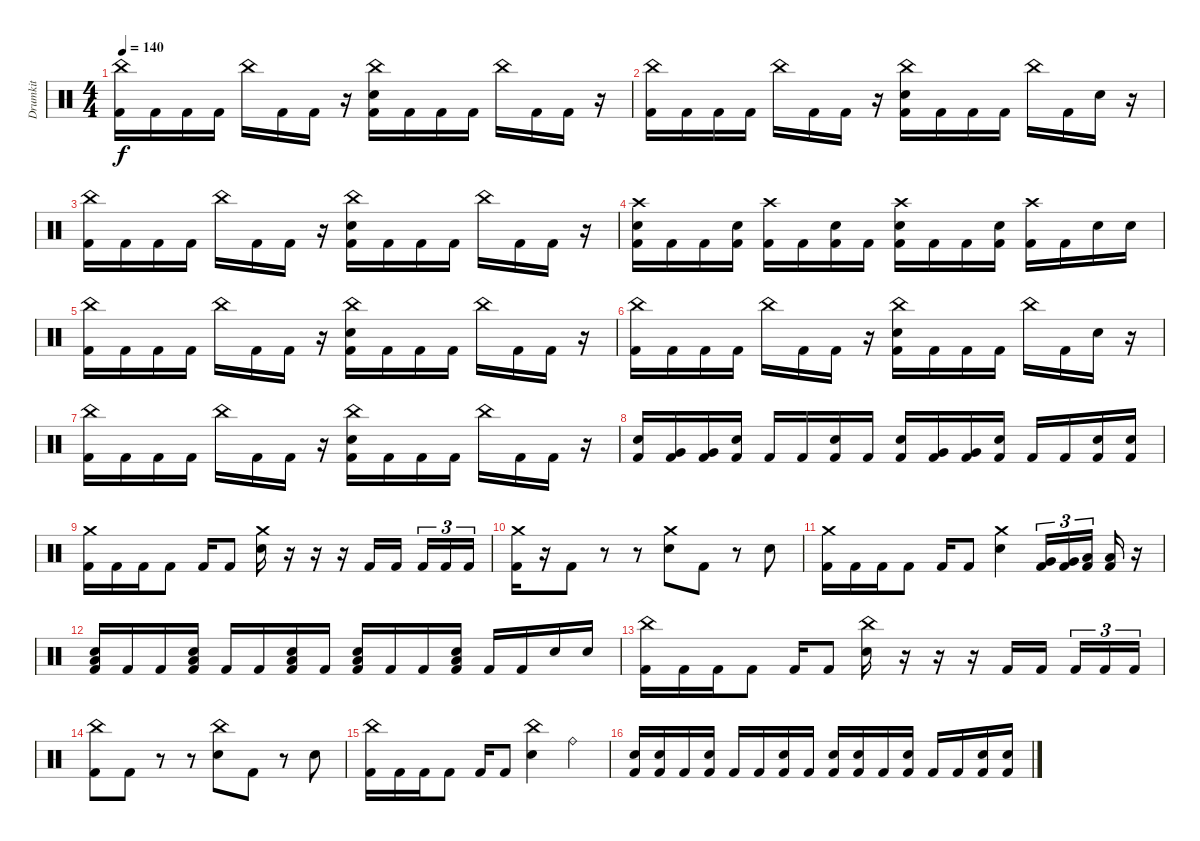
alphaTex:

\track ("Drumkit" "Drumkit") {instrument percussion}
\staff {score}
\articulation defaults
\ts (4 4)
\tempo 140
\clef neutral
\ks c
("China (hit)" "Kick (hit) 2").16{dy f} "Kick (hit) 2".16 "Kick (hit) 2".16 "Kick (hit) 2".16 "China (hit)".16 "Kick (hit) 2".16 "Kick (hit) 2".16 r.16 ("China (hit)" "Electric Snare (hit)" "Kick (hit) 2").16 "Kick (hit) 2".16 "Kick (hit) 2".16 "Kick (hit) 2".16 "China (hit)".16 "Kick (hit) 2".16 "Kick (hit) 2".16 r.16 |
("China (hit)" "Kick (hit) 2").16 "Kick (hit) 2".16 "Kick (hit) 2".16 "Kick (hit) 2".16 "China (hit)".16 "Kick (hit) 2".16 "Kick (hit) 2".16 r.16 ("China (hit)" "Electric Snare (hit)" "Kick (hit) 2").16 "Kick (hit) 2".16 "Kick (hit) 2".16 "Kick (hit) 2".16 "China (hit)".16 "Kick (hit) 2".16 "Electric Snare (hit)".16 r.16 |
("China (hit)" "Kick (hit) 2").16 "Kick (hit) 2".16 "Kick (hit) 2".16 "Kick (hit) 2".16 "China (hit)".16 "Kick (hit) 2".16 "Kick (hit) 2".16 r.16 ("China (hit)" "Electric Snare (hit)" "Kick (hit) 2").16 "Kick (hit) 2".16 "Kick (hit) 2".16 "Kick (hit) 2".16 "China (hit)".16 "Kick (hit) 2".16 "Kick (hit) 2".16 r.16 |
("Crash high (hit)" "Electric Snare (hit)" "Kick (hit) 2").16 "Kick (hit) 2".16 "Kick (hit) 2".16 ("Electric Snare (hit)" "Kick (hit) 2").16 ("Crash high (hit)" "Kick (hit) 2").16 "Kick (hit) 2".16 ("Electric Snare (hit)" "Kick (hit) 2").16 "Kick (hit) 2".16 ("Crash high (hit)" "Electric Snare (hit)" "Kick (hit) 2").16 "Kick (hit) 2".16 "Kick (hit) 2".16 ("Electric Snare (hit)" "Kick (hit) 2").16 ("Crash high (hit)" "Kick (hit) 2").16 "Kick (hit) 2".16 "Electric Snare (hit)".16 "Electric Snare (hit)".16 |
("China (hit)" "Kick (hit) 2").16 "Kick (hit) 2".16 "Kick (hit) 2".16 "Kick (hit) 2".16 "China (hit)".16 "Kick (hit) 2".16 "Kick (hit) 2".16 r.16 ("China (hit)" "Electric Snare (hit)" "Kick (hit) 2").16 "Kick (hit) 2".16 "Kick (hit) 2".16 "Kick (hit) 2".16 "China (hit)".16 "Kick (hit) 2".16 "Kick (hit) 2".16 r.16 |
("China (hit)" "Kick (hit) 2").16 "Kick (hit) 2".16 "Kick (hit) 2".16 "Kick (hit) 2".16 "China (hit)".16 "Kick (hit) 2".16 "Kick (hit) 2".16 r.16 ("China (hit)" "Electric Snare (hit)" "Kick (hit) 2").16 "Kick (hit) 2".16 "Kick (hit) 2".16 "Kick (hit) 2".16 "China (hit)".16 "Kick (hit) 2".16 "Electric Snare (hit)".16 r.16 |
("China (hit)" "Kick (hit) 2").16 "Kick (hit) 2".16 "Kick (hit) 2".16 "Kick (hit) 2".16 "China (hit)".16 "Kick (hit) 2".16 "Kick (hit) 2".16 r.16 ("China (hit)" "Electric Snare (hit)" "Kick (hit) 2").16 "Kick (hit) 2".16 "Kick (hit) 2".16 "Kick (hit) 2".16 "China (hit)".16 "Kick (hit) 2".16 "Kick (hit) 2".16 r.16 |
("Electric Snare (hit)" "Kick (hit) 2").16 ("Very Low Tom (hit)" "Kick (hit) 2").16 ("Very Low Tom (hit)" "Kick (hit) 2").16 ("Electric Snare (hit)" "Kick (hit) 2").16 "Kick (hit) 2".16 "Kick (hit) 2".16 ("Electric Snare (hit)" "Kick (hit) 2").16 "Kick (hit) 2".16 ("Electric Snare (hit)" "Kick (hit) 2").16 ("Very Low Tom (hit)" "Kick (hit) 2").16 ("Very Low Tom (hit)" "Kick (hit) 2").16 ("Electric Snare (hit)" "Kick (hit) 2").16 "Kick (hit) 2".16 "Kick (hit) 2".16 ("Electric Snare (hit)" "Kick (hit) 2").16 ("Electric Snare (hit)" "Kick (hit) 2").16 |
("Crash medium (hit)" "Kick (hit) 2").16 "Kick (hit) 2".16 "Kick (hit) 2".16 "Kick (hit) 2".8 "Kick (hit) 2".16 "Kick (hit) 2".8 ("Crash medium (hit)" "Electric Snare (hit)").16 r.16 r.16 r.16 "Kick (hit) 2".16 "Kick (hit) 2".16{beam splitsecondary} "Kick (hit) 2".16{tu (3 2)} "Kick (hit) 2".16{tu (3 2)} "Kick (hit) 2".16{tu (3 2)} |
("Crash medium (hit)" "Kick (hit) 2").16 r.16 "Kick (hit) 2".8 r.8 r.8 ("Crash medium (hit)" "Electric Snare (hit)").8 "Kick (hit) 2".8 r.8 "Electric Snare (hit)".8 |
("Crash medium (hit)" "Kick (hit) 2").16 "Kick (hit) 2".16 "Kick (hit) 2".16 "Kick (hit) 2".8 "Kick (hit) 2".16 "Kick (hit) 2".8 ("Crash medium (hit)" "Electric Snare (hit)").4 ("Very Low Tom (hit)" "Kick (hit) 2").16{tu (3 2)} ("Very Low Tom (hit)" "Kick (hit) 2").16{tu (3 2)} ("Low Floor Tom (hit)" "Kick (hit) 2").16{tu (3 2) beam splitsecondary} ("Low Floor Tom (hit)" "Kick (hit) 2").16 r.16 |
("Low Floor Tom (hit)" "Electric Snare (hit)" "Kick (hit) 2").16 "Kick (hit) 2".16 "Kick (hit) 2".16 ("Low Floor Tom (hit)" "Electric Snare (hit)" "Kick (hit) 2").16 "Kick (hit) 2".16 "Kick (hit) 2".16 ("Low Floor Tom (hit)" "Electric Snare (hit)" "Kick (hit) 2").16 "Kick (hit) 2".16 ("Low Floor Tom (hit)" "Electric Snare (hit)" "Kick (hit) 2").16 "Kick (hit) 2".16 "Kick (hit) 2".16 ("Low Floor Tom (hit)" "Electric Snare (hit)" "Kick (hit) 2").16 "Kick (hit) 2".16 "Kick (hit) 2".16 "Electric Snare (hit)".16 "Electric Snare (hit)".16 |
("China (hit)" "Kick (hit) 2").16 "Kick (hit) 2".16 "Kick (hit) 2".16 "Kick (hit) 2".8 "Kick (hit) 2".16 "Kick (hit) 2".8 ("China (hit)" "Electric Snare (hit)").16 r.16 r.16 r.16 "Kick (hit) 2".16 "Kick (hit) 2".16{beam splitsecondary} "Kick (hit) 2".16{tu (3 2)} "Kick (hit) 2".16{tu (3 2)} "Kick (hit) 2".16{tu (3 2)} |
("China (hit)" "Kick (hit) 2").8 "Kick (hit) 2".8 r.8 r.8 ("China (hit)" "Electric Snare (hit)").8 "Kick (hit) 2".8 r.8 "Electric Snare (hit)".8 |
("China (hit)" "Kick (hit) 2").16 "Kick (hit) 2".16 "Kick (hit) 2".16 "Kick (hit) 2".8 "Kick (hit) 2".16 "Kick (hit) 2".8 ("China (hit)" "Electric Snare (hit)").4 "Ride (bell)".4 |
("Electric Snare (hit)" "Kick (hit) 2").16 ("Electric Snare (hit)" "Kick (hit) 2").16 "Kick (hit) 2".16 ("Electric Snare (hit)" "Kick (hit) 2").16 "Kick (hit) 2".16 "Kick (hit) 2".16 ("Electric Snare (hit)" "Kick (hit) 2").16 "Kick (hit) 2".16 ("Electric Snare (hit)" "Kick (hit) 2").16 ("Electric Snare (hit)" "Kick (hit) 2").16 "Kick (hit) 2".16 ("Electric Snare (hit)" "Kick (hit) 2").16 "Kick (hit) 2".16 "Kick (hit) 2".16 ("Electric Snare (hit)" "Kick (hit) 2").16 ("Electric Snare (hit)" "Kick (hit) 2").16
